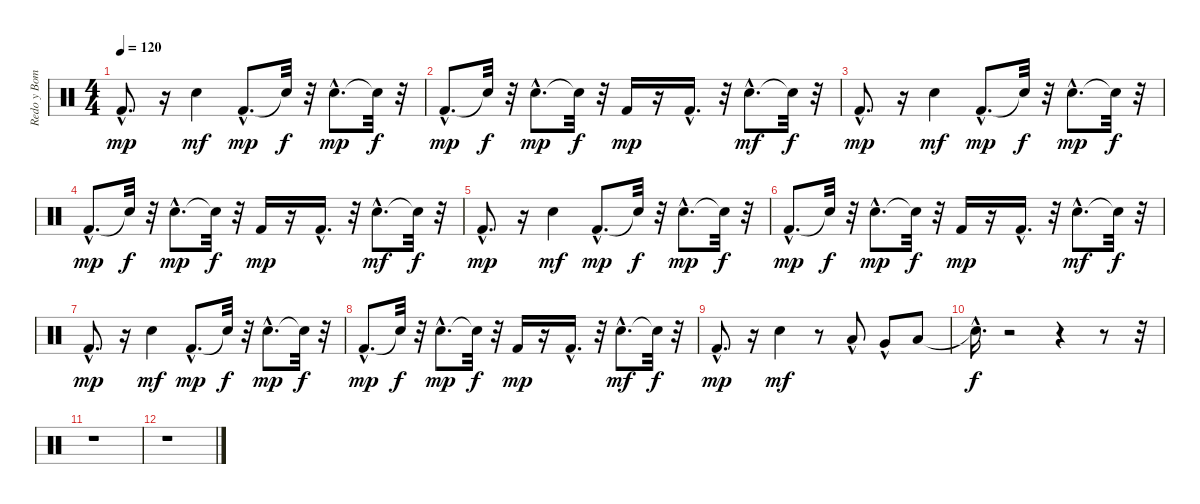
\track ("Redo y Bombo" "Redo y Bom") {instrument percussion}
\staff {score}
\articulation defaults
\ts (4 4)
\tempo 120
\clef neutral
\ks c "Kick (hit) 2"{hac}.8{d dy mp}
r.16 "Snare (hit) 2".4{dy mf} "Kick (hit) 2"{hac}.8{d dy mp} "Snare (hit)"{t}.32{dy f} r.32 "Snare (hit) 2"{hac}.8{d dy mp} "Snare (hit)"{t}.32{dy f} r.32 |
"Kick (hit) 2"{hac}.8{d dy mp} "Snare (hit)"{t}.32{dy f} r.32 "Snare (hit) 2"{hac}.8{d dy mp} "Snare (hit)"{t}.32{dy f} r.32 "Kick (hit) 2".16{dy mp} r.16 "Kick (hit) 2"{hac}.16{d} r.32 "Snare (hit) 2"{hac}.8{d dy mf} "Snare (hit)"{t}.32{dy f} r.32 |
"Kick (hit) 2"{hac}.8{d dy mp} r.16 "Snare (hit) 2".4{dy mf} "Kick (hit) 2"{hac}.8{d dy mp} "Snare (hit)"{t}.32{dy f} r.32 "Snare (hit) 2"{hac}.8{d dy mp} "Snare (hit)"{t}.32{dy f} r.32 |
"Kick (hit) 2"{hac}.8{d dy mp} "Snare (hit)"{t}.32{dy f} r.32 "Snare (hit) 2"{hac}.8{d dy mp} "Snare (hit)"{t}.32{dy f} r.32 "Kick (hit) 2".16{dy mp} r.16 "Kick (hit) 2"{hac}.16{d} r.32 "Snare (hit) 2"{hac}.8{d dy mf} "Snare (hit)"{t}.32{dy f} r.32 |
"Kick (hit) 2"{hac}.8{d dy mp} r.16 "Snare (hit) 2".4{dy mf} "Kick (hit) 2"{hac}.8{d dy mp} "Snare (hit)"{t}.32{dy f} r.32 "Snare (hit) 2"{hac}.8{d dy mp} "Snare (hit)"{t}.32{dy f} r.32 |
"Kick (hit) 2"{hac}.8{d dy mp} "Snare (hit)"{t}.32{dy f} r.32 "Snare (hit) 2"{hac}.8{d dy mp} "Snare (hit)"{t}.32{dy f} r.32 "Kick (hit) 2".16{dy mp} r.16 "Kick (hit) 2"{hac}.16{d} r.32 "Snare (hit) 2"{hac}.8{d dy mf} "Snare (hit)"{t}.32{dy f} r.32 |
"Kick (hit) 2"{hac}.8{d dy mp} r.16 "Snare (hit) 2".4{dy mf} "Kick (hit) 2"{hac}.8{d dy mp} "Snare (hit)"{t}.32{dy f} r.32 "Snare (hit) 2"{hac}.8{d dy mp} "Snare (hit)"{t}.32{dy f} r.32 |
"Kick (hit) 2"{hac}.8{d dy mp} "Snare (hit)"{t}.32{dy f} r.32 "Snare (hit) 2"{hac}.8{d dy mp} "Snare (hit)"{t}.32{dy f} r.32 "Kick (hit) 2".16{dy mp} r.16 "Kick (hit) 2"{hac}.16{d} r.32 "Snare (hit) 2"{hac}.8{d dy mf} "Snare (hit)"{t}.32{dy f} r.32 |
"Kick (hit) 2"{hac}.8{d dy mp} r.16 "Snare (hit) 2".4{dy mf} r.8 "Low Tom (hit)"{hac}.8 "Very Low Tom (hit)"{hac}.8 "Low Floor Tom (hit)".8 |
"Snare (hit)"{hac t}.16{d dy f} r.2 r.4 r.8 r.32 |
r.1 |
r.1
